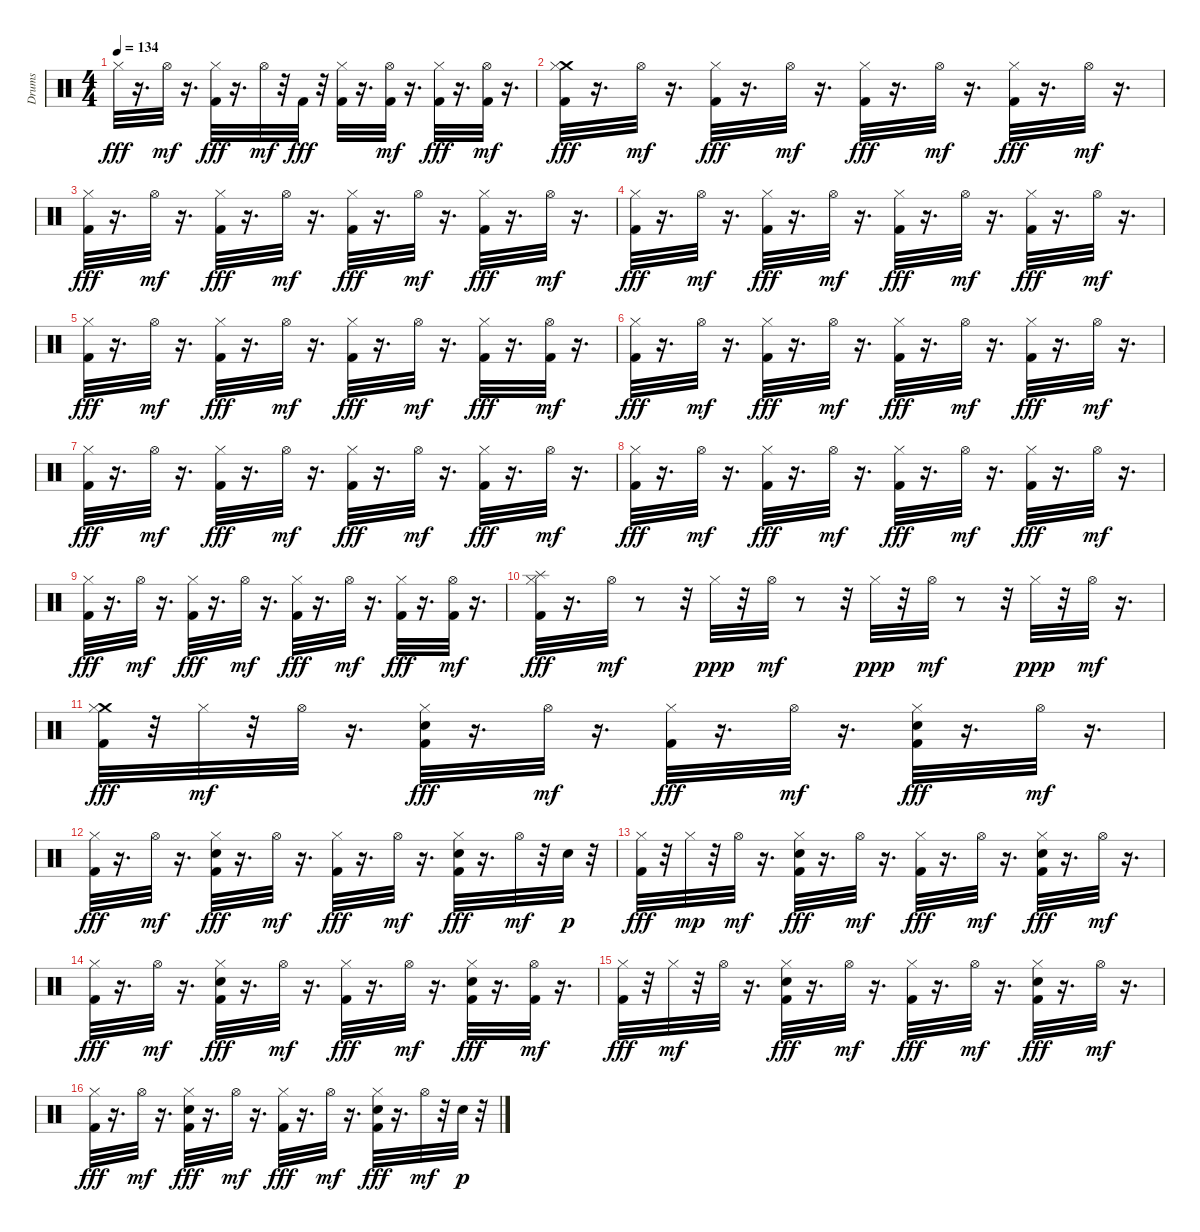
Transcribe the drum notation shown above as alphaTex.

\track ("Drums" "Drums") {instrument percussion}
\staff {score}
\articulation defaults
\ts (4 4)
\tempo 134
\clef neutral
\ks c "Hi-Hat (closed)".32{dy fff}
r.16{d} "Hi-Hat (open)".32{dy mf} r.16{d} ("Kick (hit) 2" "Hi-Hat (closed)").32{dy fff} r.16{d} "Hi-Hat (open)".32{dy mf} r.32 "Kick (hit) 2".32{dy fff} r.32 ("Kick (hit) 2" "Hi-Hat (closed)").32 r.16{d} ("Kick (hit) 2" "Hi-Hat (open)").32{dy mf} r.16{d} ("Kick (hit) 2" "Hi-Hat (closed)").32{dy fff} r.16{d} ("Kick (hit) 2" "Hi-Hat (open)").32{dy mf} r.16{d} |
("Crash medium (hit)" "Kick (hit) 2" "Hi-Hat (closed)").32{dy fff} r.16{d} "Hi-Hat (open)".32{dy mf} r.16{d} ("Kick (hit) 2" "Hi-Hat (closed)").32{dy fff} r.16{d} "Hi-Hat (open)".32{dy mf} r.16{d} ("Kick (hit) 2" "Hi-Hat (closed)").32{dy fff} r.16{d} "Hi-Hat (open)".32{dy mf} r.16{d} ("Kick (hit) 2" "Hi-Hat (closed)").32{dy fff} r.16{d} "Hi-Hat (open)".32{dy mf} r.16{d} |
("Kick (hit) 2" "Hi-Hat (closed)").32{dy fff} r.16{d} "Hi-Hat (open)".32{dy mf} r.16{d} ("Kick (hit) 2" "Hi-Hat (closed)").32{dy fff} r.16{d} "Hi-Hat (open)".32{dy mf} r.16{d} ("Kick (hit) 2" "Hi-Hat (closed)").32{dy fff} r.16{d} "Hi-Hat (open)".32{dy mf} r.16{d} ("Kick (hit) 2" "Hi-Hat (closed)").32{dy fff} r.16{d} "Hi-Hat (open)".32{dy mf} r.16{d} |
("Kick (hit) 2" "Hi-Hat (closed)").32{dy fff} r.16{d} "Hi-Hat (open)".32{dy mf} r.16{d} ("Kick (hit) 2" "Hi-Hat (closed)").32{dy fff} r.16{d} "Hi-Hat (open)".32{dy mf} r.16{d} ("Kick (hit) 2" "Hi-Hat (closed)").32{dy fff} r.16{d} "Hi-Hat (open)".32{dy mf} r.16{d} ("Kick (hit) 2" "Hi-Hat (closed)").32{dy fff} r.16{d} "Hi-Hat (open)".32{dy mf} r.16{d} |
("Kick (hit) 2" "Hi-Hat (closed)").32{dy fff} r.16{d} "Hi-Hat (open)".32{dy mf} r.16{d} ("Kick (hit) 2" "Hi-Hat (closed)").32{dy fff} r.16{d} "Hi-Hat (open)".32{dy mf} r.16{d} ("Kick (hit) 2" "Hi-Hat (closed)").32{dy fff} r.16{d} "Hi-Hat (open)".32{dy mf} r.16{d} ("Kick (hit) 2" "Hi-Hat (closed)").32{dy fff} r.16{d} ("Kick (hit) 2" "Hi-Hat (open)").32{dy mf} r.16{d} |
("Kick (hit) 2" "Hi-Hat (closed)").32{dy fff} r.16{d} "Hi-Hat (open)".32{dy mf} r.16{d} ("Kick (hit) 2" "Hi-Hat (closed)").32{dy fff} r.16{d} "Hi-Hat (open)".32{dy mf} r.16{d} ("Kick (hit) 2" "Hi-Hat (closed)").32{dy fff} r.16{d} "Hi-Hat (open)".32{dy mf} r.16{d} ("Kick (hit) 2" "Hi-Hat (closed)").32{dy fff} r.16{d} "Hi-Hat (open)".32{dy mf} r.16{d} |
("Kick (hit) 2" "Hi-Hat (closed)").32{dy fff} r.16{d} "Hi-Hat (open)".32{dy mf} r.16{d} ("Kick (hit) 2" "Hi-Hat (closed)").32{dy fff} r.16{d} "Hi-Hat (open)".32{dy mf} r.16{d} ("Kick (hit) 2" "Hi-Hat (closed)").32{dy fff} r.16{d} "Hi-Hat (open)".32{dy mf} r.16{d} ("Kick (hit) 2" "Hi-Hat (closed)").32{dy fff} r.16{d} "Hi-Hat (open)".32{dy mf} r.16{d} |
("Kick (hit) 2" "Hi-Hat (closed)").32{dy fff} r.16{d} "Hi-Hat (open)".32{dy mf} r.16{d} ("Kick (hit) 2" "Hi-Hat (closed)").32{dy fff} r.16{d} "Hi-Hat (open)".32{dy mf} r.16{d} ("Kick (hit) 2" "Hi-Hat (closed)").32{dy fff} r.16{d} "Hi-Hat (open)".32{dy mf} r.16{d} ("Kick (hit) 2" "Hi-Hat (closed)").32{dy fff} r.16{d} "Hi-Hat (open)".32{dy mf} r.16{d} |
("Kick (hit) 2" "Hi-Hat (closed)").32{dy fff} r.16{d} "Hi-Hat (open)".32{dy mf} r.16{d} ("Kick (hit) 2" "Hi-Hat (closed)").32{dy fff} r.16{d} "Hi-Hat (open)".32{dy mf} r.16{d} ("Kick (hit) 2" "Hi-Hat (closed)").32{dy fff} r.16{d} "Hi-Hat (open)".32{dy mf} r.16{d} ("Kick (hit) 2" "Hi-Hat (closed)").32{dy fff} r.16{d} ("Kick (hit) 2" "Hi-Hat (open)").32{dy mf} r.16{d} |
("Kick (hit) 2" "Hi-Hat (closed)" "Splash (hit)").32{dy fff} r.16{d} "Hi-Hat (open)".32{dy mf} r.8 r.32 "Hi-Hat (closed)".32{dy ppp} r.32 "Hi-Hat (open)".32{dy mf} r.8 r.32 "Hi-Hat (closed)".32{dy ppp} r.32 "Hi-Hat (open)".32{dy mf} r.8 r.32 "Hi-Hat (closed)".32{dy ppp} r.32 "Hi-Hat (open)".32{dy mf} r.16{d} |
("Crash medium (hit)" "Kick (hit) 2" "Hi-Hat (closed)").32{dy fff} r.32 "Hi-Hat (closed)".32{dy mf} r.32 "Hi-Hat (open)".32 r.16{d} ("Electric Snare (hit)" "Kick (hit) 2" "Hi-Hat (closed)").32{dy fff} r.16{d} "Hi-Hat (open)".32{dy mf} r.16{d} ("Kick (hit) 2" "Hi-Hat (closed)").32{dy fff} r.16{d} "Hi-Hat (open)".32{dy mf} r.16{d} ("Electric Snare (hit)" "Kick (hit) 2" "Hi-Hat (closed)").32{dy fff} r.16{d} "Hi-Hat (open)".32{dy mf} r.16{d} |
("Kick (hit) 2" "Hi-Hat (closed)").32{dy fff} r.16{d} "Hi-Hat (open)".32{dy mf} r.16{d} ("Electric Snare (hit)" "Kick (hit) 2" "Hi-Hat (closed)").32{dy fff} r.16{d} "Hi-Hat (open)".32{dy mf} r.16{d} ("Kick (hit) 2" "Hi-Hat (closed)").32{dy fff} r.16{d} "Hi-Hat (open)".32{dy mf} r.16{d} ("Electric Snare (hit)" "Kick (hit) 2" "Hi-Hat (closed)").32{dy fff} r.16{d} "Hi-Hat (open)".32{dy mf} r.32 "Electric Snare (hit)".32{dy p} r.32 |
("Kick (hit) 2" "Hi-Hat (closed)").32{dy fff} r.32 "Hi-Hat (closed)".32{dy mp} r.32 "Hi-Hat (open)".32{dy mf} r.16{d} ("Electric Snare (hit)" "Kick (hit) 2" "Hi-Hat (closed)").32{dy fff} r.16{d} "Hi-Hat (open)".32{dy mf} r.16{d} ("Kick (hit) 2" "Hi-Hat (closed)").32{dy fff} r.16{d} "Hi-Hat (open)".32{dy mf} r.16{d} ("Electric Snare (hit)" "Kick (hit) 2" "Hi-Hat (closed)").32{dy fff} r.16{d} "Hi-Hat (open)".32{dy mf} r.16{d} |
("Kick (hit) 2" "Hi-Hat (closed)").32{dy fff} r.16{d} "Hi-Hat (open)".32{dy mf} r.16{d} ("Electric Snare (hit)" "Kick (hit) 2" "Hi-Hat (closed)").32{dy fff} r.16{d} "Hi-Hat (open)".32{dy mf} r.16{d} ("Kick (hit) 2" "Hi-Hat (closed)").32{dy fff} r.16{d} "Hi-Hat (open)".32{dy mf} r.16{d} ("Electric Snare (hit)" "Kick (hit) 2" "Hi-Hat (closed)").32{dy fff} r.16{d} ("Kick (hit) 2" "Hi-Hat (open)").32{dy mf} r.16{d} |
("Kick (hit) 2" "Hi-Hat (closed)").32{dy fff} r.32 "Hi-Hat (closed)".32{dy mf} r.32 "Hi-Hat (open)".32 r.16{d} ("Electric Snare (hit)" "Kick (hit) 2" "Hi-Hat (closed)").32{dy fff} r.16{d} "Hi-Hat (open)".32{dy mf} r.16{d} ("Kick (hit) 2" "Hi-Hat (closed)").32{dy fff} r.16{d} "Hi-Hat (open)".32{dy mf} r.16{d} ("Electric Snare (hit)" "Kick (hit) 2" "Hi-Hat (closed)").32{dy fff} r.16{d} "Hi-Hat (open)".32{dy mf} r.16{d} |
("Kick (hit) 2" "Hi-Hat (closed)").32{dy fff} r.16{d} "Hi-Hat (open)".32{dy mf} r.16{d} ("Electric Snare (hit)" "Kick (hit) 2" "Hi-Hat (closed)").32{dy fff} r.16{d} "Hi-Hat (open)".32{dy mf} r.16{d} ("Kick (hit) 2" "Hi-Hat (closed)").32{dy fff} r.16{d} "Hi-Hat (open)".32{dy mf} r.16{d} ("Electric Snare (hit)" "Kick (hit) 2" "Hi-Hat (closed)").32{dy fff} r.16{d} "Hi-Hat (open)".32{dy mf} r.32 "Electric Snare (hit)".32{dy p} r.32
